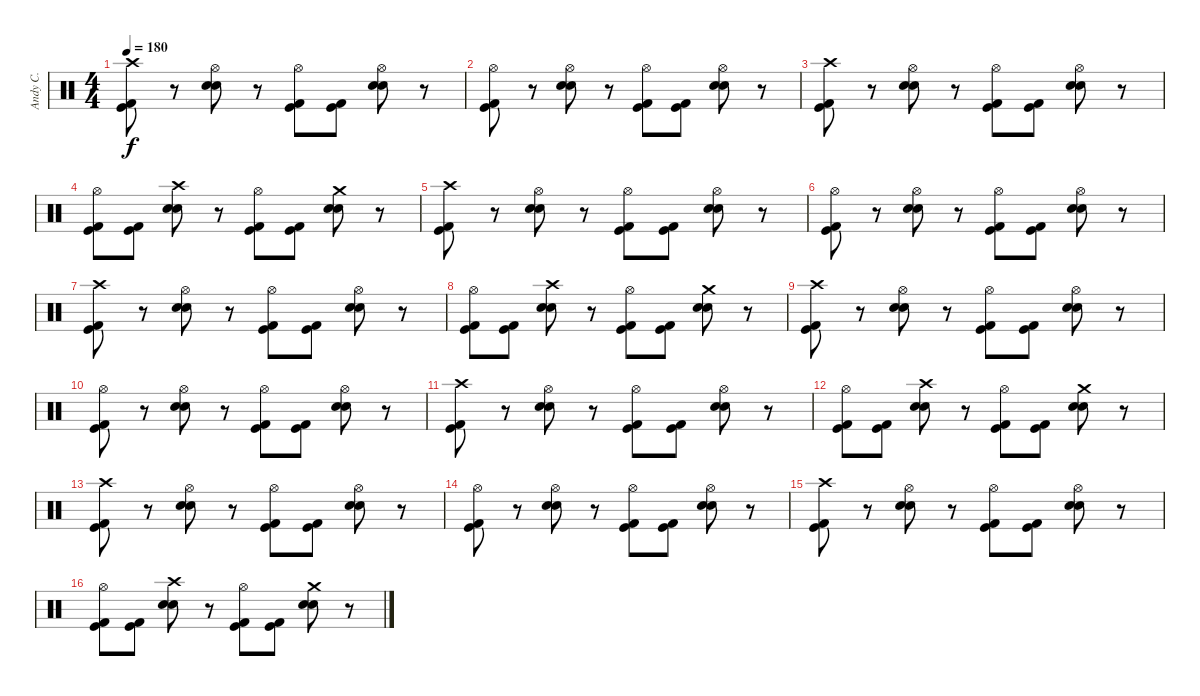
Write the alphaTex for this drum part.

\track ("Andy C." "Andy C.") {instrument percussion}
\staff {score}
\articulation defaults
\ts (4 4)
\tempo 180
\clef neutral
\ks c
("Crash high (hit)" "Kick (hit)" "Kick (hit) 2").8{dy f} r.8 ("Hi-Hat (open)" "Electric Snare (hit)" "Snare (hit) 2").8 r.8 ("Hi-Hat (open)" "Kick (hit)" "Kick (hit) 2").8 ("Kick (hit)" "Kick (hit) 2").8 ("Hi-Hat (open)" "Electric Snare (hit)" "Snare (hit) 2").8 r.8 |
("Hi-Hat (open)" "Kick (hit)" "Kick (hit) 2").8 r.8 ("Hi-Hat (open)" "Electric Snare (hit)" "Snare (hit) 2").8 r.8 ("Hi-Hat (open)" "Kick (hit)" "Kick (hit) 2").8 ("Kick (hit)" "Kick (hit) 2").8 ("Hi-Hat (open)" "Electric Snare (hit)" "Snare (hit) 2").8 r.8 |
("Crash high (hit)" "Kick (hit)" "Kick (hit) 2").8 r.8 ("Hi-Hat (open)" "Electric Snare (hit)" "Snare (hit) 2").8 r.8 ("Hi-Hat (open)" "Kick (hit)" "Kick (hit) 2").8 ("Kick (hit)" "Kick (hit) 2").8 ("Hi-Hat (open)" "Electric Snare (hit)" "Snare (hit) 2").8 r.8 |
("Hi-Hat (open)" "Kick (hit)" "Kick (hit) 2").8 ("Kick (hit)" "Kick (hit) 2").8 ("Crash high (hit)" "Electric Snare (hit)" "Snare (hit) 2").8 r.8 ("Hi-Hat (open)" "Kick (hit)" "Kick (hit) 2").8 ("Kick (hit)" "Kick (hit) 2").8 ("Crash medium (hit)" "Electric Snare (hit)" "Snare (hit) 2").8 r.8 |
("Crash high (hit)" "Kick (hit)" "Kick (hit) 2").8 r.8 ("Hi-Hat (open)" "Electric Snare (hit)" "Snare (hit) 2").8 r.8 ("Hi-Hat (open)" "Kick (hit)" "Kick (hit) 2").8 ("Kick (hit)" "Kick (hit) 2").8 ("Hi-Hat (open)" "Electric Snare (hit)" "Snare (hit) 2").8 r.8 |
("Hi-Hat (open)" "Kick (hit)" "Kick (hit) 2").8 r.8 ("Hi-Hat (open)" "Snare (hit) 2" "Electric Snare (hit)").8 r.8 ("Hi-Hat (open)" "Kick (hit)" "Kick (hit) 2").8 ("Kick (hit)" "Kick (hit) 2").8 ("Hi-Hat (open)" "Snare (hit) 2" "Electric Snare (hit)").8 r.8 |
("Crash high (hit)" "Kick (hit)" "Kick (hit) 2").8 r.8 ("Hi-Hat (open)" "Snare (hit) 2" "Electric Snare (hit)").8 r.8 ("Hi-Hat (open)" "Kick (hit)" "Kick (hit) 2").8 ("Kick (hit)" "Kick (hit) 2").8 ("Hi-Hat (open)" "Snare (hit) 2" "Electric Snare (hit)").8 r.8 |
("Hi-Hat (open)" "Kick (hit)" "Kick (hit) 2").8 ("Kick (hit)" "Kick (hit) 2").8 ("Crash high (hit)" "Snare (hit) 2" "Electric Snare (hit)").8 r.8 ("Hi-Hat (open)" "Kick (hit)" "Kick (hit) 2").8 ("Kick (hit)" "Kick (hit) 2").8 ("Crash medium (hit)" "Snare (hit) 2" "Electric Snare (hit)").8 r.8 |
("Crash high (hit)" "Kick (hit)" "Kick (hit) 2").8 r.8 ("Hi-Hat (open)" "Snare (hit) 2" "Electric Snare (hit)").8 r.8 ("Hi-Hat (open)" "Kick (hit)" "Kick (hit) 2").8 ("Kick (hit)" "Kick (hit) 2").8 ("Hi-Hat (open)" "Snare (hit) 2" "Electric Snare (hit)").8 r.8 |
("Hi-Hat (open)" "Kick (hit)" "Kick (hit) 2").8 r.8 ("Hi-Hat (open)" "Snare (hit) 2" "Electric Snare (hit)").8 r.8 ("Hi-Hat (open)" "Kick (hit)" "Kick (hit) 2").8 ("Kick (hit)" "Kick (hit) 2").8 ("Hi-Hat (open)" "Snare (hit) 2" "Electric Snare (hit)").8 r.8 |
("Crash high (hit)" "Kick (hit)" "Kick (hit) 2").8 r.8 ("Hi-Hat (open)" "Snare (hit) 2" "Electric Snare (hit)").8 r.8 ("Hi-Hat (open)" "Kick (hit)" "Kick (hit) 2").8 ("Kick (hit)" "Kick (hit) 2").8 ("Hi-Hat (open)" "Snare (hit) 2" "Electric Snare (hit)").8 r.8 |
("Hi-Hat (open)" "Kick (hit)" "Kick (hit) 2").8 ("Kick (hit)" "Kick (hit) 2").8 ("Crash high (hit)" "Snare (hit) 2" "Electric Snare (hit)").8 r.8 ("Hi-Hat (open)" "Kick (hit)" "Kick (hit) 2").8 ("Kick (hit)" "Kick (hit) 2").8 ("Crash medium (hit)" "Snare (hit) 2" "Electric Snare (hit)").8 r.8 |
("Crash high (hit)" "Kick (hit)" "Kick (hit) 2").8 r.8 ("Hi-Hat (open)" "Snare (hit) 2" "Electric Snare (hit)").8 r.8 ("Hi-Hat (open)" "Kick (hit)" "Kick (hit) 2").8 ("Kick (hit)" "Kick (hit) 2").8 ("Hi-Hat (open)" "Snare (hit) 2" "Electric Snare (hit)").8 r.8 |
("Hi-Hat (open)" "Kick (hit)" "Kick (hit) 2").8 r.8 ("Hi-Hat (open)" "Snare (hit) 2" "Electric Snare (hit)").8 r.8 ("Hi-Hat (open)" "Kick (hit)" "Kick (hit) 2").8 ("Kick (hit)" "Kick (hit) 2").8 ("Hi-Hat (open)" "Snare (hit) 2" "Electric Snare (hit)").8 r.8 |
("Crash high (hit)" "Kick (hit)" "Kick (hit) 2").8 r.8 ("Hi-Hat (open)" "Snare (hit) 2" "Electric Snare (hit)").8 r.8 ("Hi-Hat (open)" "Kick (hit)" "Kick (hit) 2").8 ("Kick (hit)" "Kick (hit) 2").8 ("Hi-Hat (open)" "Snare (hit) 2" "Electric Snare (hit)").8 r.8 |
("Hi-Hat (open)" "Kick (hit)" "Kick (hit) 2").8 ("Kick (hit)" "Kick (hit) 2").8 ("Crash high (hit)" "Snare (hit) 2" "Electric Snare (hit)").8 r.8 ("Hi-Hat (open)" "Kick (hit)" "Kick (hit) 2").8 ("Kick (hit)" "Kick (hit) 2").8 ("Crash medium (hit)" "Snare (hit) 2" "Electric Snare (hit)").8 r.8
